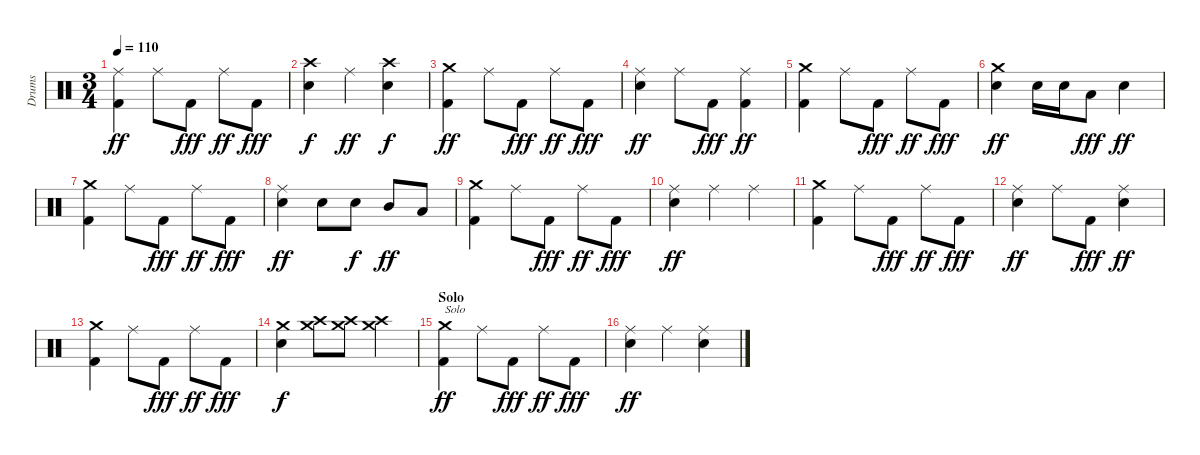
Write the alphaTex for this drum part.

\track ("Drums" "Drums") {instrument percussion}
\staff {score}
\articulation defaults
\ts (3 4)
\tempo 110
\clef neutral
\ks c
("Ride (middle)" "Kick (hit) 2").4{dy ff} "Ride (middle)".8 "Kick (hit) 2".8{dy fff} "Ride (middle)".8{dy ff} "Kick (hit) 2".8{dy fff} |
("Crash high (hit)" "Snare (hit) 2").4{dy f} "Ride (middle)".4{dy ff} ("Crash high (hit)" "Snare (hit) 2").4{dy f} |
("Crash medium (hit)" "Kick (hit) 2").4{dy ff} "Ride (middle)".8 "Kick (hit) 2".8{dy fff} "Ride (middle)".8{dy ff} "Kick (hit) 2".8{dy fff} |
("Ride (middle)" "Snare (hit) 2").4{dy ff} "Ride (middle)".8 "Kick (hit) 2".8{dy fff} ("Ride (middle)" "Kick (hit) 2").4{dy ff} |
("Crash medium (hit)" "Kick (hit) 2").4 "Ride (middle)".8 "Kick (hit) 2".8{dy fff} "Ride (middle)".8{dy ff} "Kick (hit) 2".8{dy fff} |
("Crash medium (hit)" "Snare (hit) 2").4{dy ff} "Snare (hit) 2".16 "Snare (hit) 2".16 "Low Tom (hit)".8{dy fff} "Snare (hit) 2".4{dy ff} |
("Crash medium (hit)" "Kick (hit) 2").4 "Ride (middle)".8 "Kick (hit) 2".8{dy fff} "Ride (middle)".8{dy ff} "Kick (hit) 2".8{dy fff} |
("Ride (middle)" "Snare (hit) 2").4{dy ff} "Snare (hit) 2".8 "Snare (hit) 2".8{dy f} "Mid Tom (hit)".8{dy ff} "Low Tom (hit)".8 |
("Crash medium (hit)" "Kick (hit) 2").4 "Ride (middle)".8 "Kick (hit) 2".8{dy fff} "Ride (middle)".8{dy ff} "Kick (hit) 2".8{dy fff} |
("Ride (middle)" "Snare (hit) 2").4{dy ff} "Ride (middle)".4 "Ride (middle)".4 |
("Crash medium (hit)" "Kick (hit) 2").4 "Ride (middle)".8 "Kick (hit) 2".8{dy fff} "Ride (middle)".8{dy ff} "Kick (hit) 2".8{dy fff} |
("Ride (middle)" "Snare (hit) 2").4{dy ff} "Ride (middle)".8 "Kick (hit) 2".8{dy fff} ("Ride (middle)" "Snare (hit) 2").4{dy ff} |
("Crash medium (hit)" "Kick (hit) 2").4 "Ride (middle)".8 "Kick (hit) 2".8{dy fff} "Ride (middle)".8{dy ff} "Kick (hit) 2".8{dy fff} |
("Crash medium (hit)" "Snare (hit) 2").4{dy f} ("Crash medium (hit)" "Crash high (hit)").8 ("Crash medium (hit)" "Crash high (hit)").8 ("Crash medium (hit)" "Crash high (hit)").4 |
\section ("" "Solo")
("Crash medium (hit)" "Kick (hit) 2").4{txt "Solo" dy ff} "Ride (middle)".8 "Kick (hit) 2".8{dy fff} "Ride (middle)".8{dy ff} "Kick (hit) 2".8{dy fff} |
("Ride (middle)" "Snare (hit) 2").4{dy ff} "Ride (middle)".4 ("Ride (middle)" "Snare (hit) 2").4
